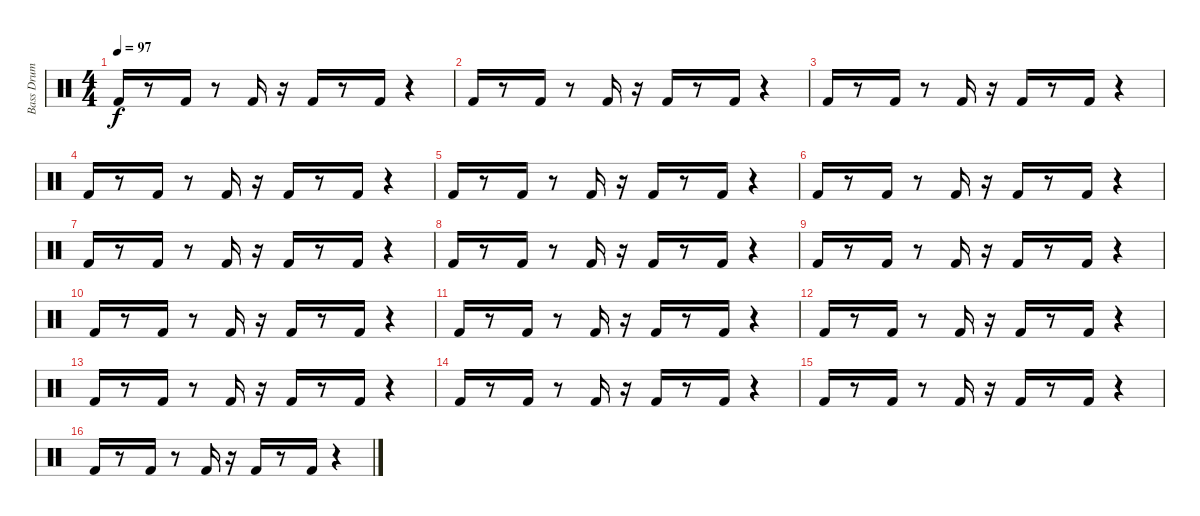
\track ("Bass Drum" "Bass Drum") {instrument percussion}
\staff {score}
\articulation defaults
\ts (4 4)
\tempo 97
\clef neutral
\ks c "Kick (hit) 2".16{dy f}
r.8 "Kick (hit) 2".16 r.8 "Kick (hit) 2".16 r.16 "Kick (hit) 2".16 r.8 "Kick (hit) 2".16 r.4 |
"Kick (hit) 2".16 r.8 "Kick (hit) 2".16 r.8 "Kick (hit) 2".16 r.16 "Kick (hit) 2".16 r.8 "Kick (hit) 2".16 r.4 |
"Kick (hit) 2".16 r.8 "Kick (hit) 2".16 r.8 "Kick (hit) 2".16 r.16 "Kick (hit) 2".16 r.8 "Kick (hit) 2".16 r.4 |
"Kick (hit) 2".16 r.8 "Kick (hit) 2".16 r.8 "Kick (hit) 2".16 r.16 "Kick (hit) 2".16 r.8 "Kick (hit) 2".16 r.4 |
"Kick (hit) 2".16 r.8 "Kick (hit) 2".16 r.8 "Kick (hit) 2".16 r.16 "Kick (hit) 2".16 r.8 "Kick (hit) 2".16 r.4 |
"Kick (hit) 2".16 r.8 "Kick (hit) 2".16 r.8 "Kick (hit) 2".16 r.16 "Kick (hit) 2".16 r.8 "Kick (hit) 2".16 r.4 |
"Kick (hit) 2".16 r.8 "Kick (hit) 2".16 r.8 "Kick (hit) 2".16 r.16 "Kick (hit) 2".16 r.8 "Kick (hit) 2".16 r.4 |
"Kick (hit) 2".16 r.8 "Kick (hit) 2".16 r.8 "Kick (hit) 2".16 r.16 "Kick (hit) 2".16 r.8 "Kick (hit) 2".16 r.4 |
"Kick (hit) 2".16 r.8 "Kick (hit) 2".16 r.8 "Kick (hit) 2".16 r.16 "Kick (hit) 2".16 r.8 "Kick (hit) 2".16 r.4 |
"Kick (hit) 2".16 r.8 "Kick (hit) 2".16 r.8 "Kick (hit) 2".16 r.16 "Kick (hit) 2".16 r.8 "Kick (hit) 2".16 r.4 |
"Kick (hit) 2".16 r.8 "Kick (hit) 2".16 r.8 "Kick (hit) 2".16 r.16 "Kick (hit) 2".16 r.8 "Kick (hit) 2".16 r.4 |
"Kick (hit) 2".16 r.8 "Kick (hit) 2".16 r.8 "Kick (hit) 2".16 r.16 "Kick (hit) 2".16 r.8 "Kick (hit) 2".16 r.4 |
"Kick (hit) 2".16 r.8 "Kick (hit) 2".16 r.8 "Kick (hit) 2".16 r.16 "Kick (hit) 2".16 r.8 "Kick (hit) 2".16 r.4 |
"Kick (hit) 2".16 r.8 "Kick (hit) 2".16 r.8 "Kick (hit) 2".16 r.16 "Kick (hit) 2".16 r.8 "Kick (hit) 2".16 r.4 |
"Kick (hit) 2".16 r.8 "Kick (hit) 2".16 r.8 "Kick (hit) 2".16 r.16 "Kick (hit) 2".16 r.8 "Kick (hit) 2".16 r.4 |
"Kick (hit) 2".16 r.8 "Kick (hit) 2".16 r.8 "Kick (hit) 2".16 r.16 "Kick (hit) 2".16 r.8 "Kick (hit) 2".16 r.4
